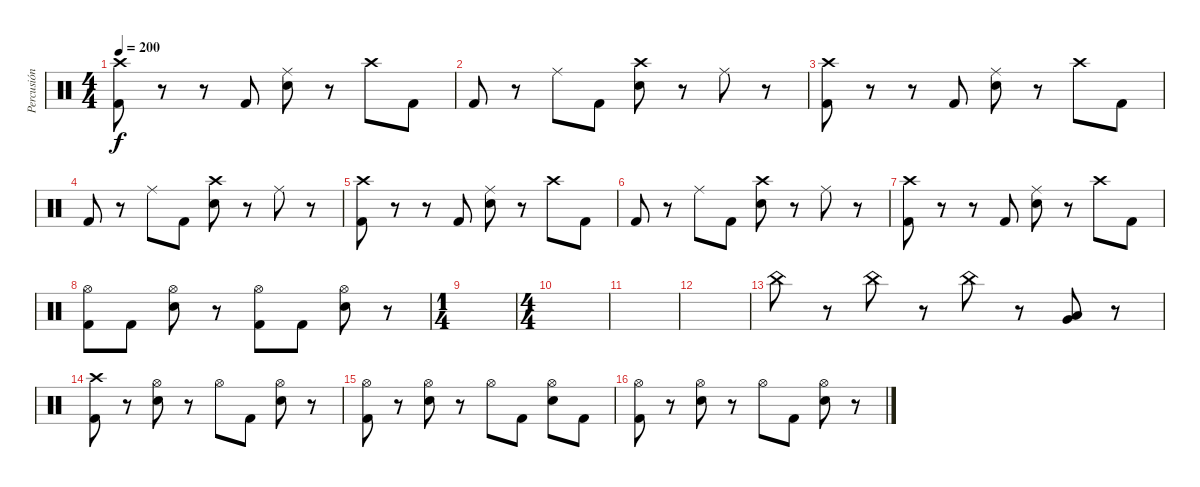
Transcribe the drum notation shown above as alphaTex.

\track ("Percusión" "Percusión") {instrument percussion}
\staff {score}
\articulation defaults
\ts (4 4)
\tempo 200
\clef neutral
\ks c
("Crash high (hit)" "Kick (hit) 2").8{dy f} r.8 r.8 "Kick (hit) 2".8 ("Ride (middle)" "Electric Snare (hit)").8 r.8 "Crash high (hit)".8 "Kick (hit) 2".8 |
"Kick (hit) 2".8 r.8 "Ride (middle)".8 "Kick (hit) 2".8 ("Crash high (hit)" "Electric Snare (hit)").8 r.8 "Ride (middle)".8 r.8 |
("Crash high (hit)" "Kick (hit) 2").8 r.8 r.8 "Kick (hit) 2".8 ("Ride (middle)" "Electric Snare (hit)").8 r.8 "Crash high (hit)".8 "Kick (hit) 2".8 |
"Kick (hit) 2".8 r.8 "Ride (middle)".8 "Kick (hit) 2".8 ("Crash high (hit)" "Electric Snare (hit)").8 r.8 "Ride (middle)".8 r.8 |
("Crash high (hit)" "Kick (hit) 2").8 r.8 r.8 "Kick (hit) 2".8 ("Ride (middle)" "Electric Snare (hit)").8 r.8 "Crash high (hit)".8 "Kick (hit) 2".8 |
"Kick (hit) 2".8 r.8 "Ride (middle)".8 "Kick (hit) 2".8 ("Crash high (hit)" "Electric Snare (hit)").8 r.8 "Ride (middle)".8 r.8 |
("Crash high (hit)" "Kick (hit) 2").8 r.8 r.8 "Kick (hit) 2".8 ("Ride (middle)" "Electric Snare (hit)").8 r.8 "Crash high (hit)".8 "Kick (hit) 2".8 |
("Hi-Hat (open)" "Kick (hit) 2").8 "Kick (hit) 2".8 ("Hi-Hat (open)" "Electric Snare (hit)").8 r.8 ("Hi-Hat (open)" "Kick (hit) 2").8 "Kick (hit) 2".8 ("Hi-Hat (open)" "Electric Snare (hit)").8 r.8 |
\ts (1 4)
|
\ts (4 4)
|
|
|
"China (hit)".8 r.8 "China (hit)".8 r.8 "China (hit)".8 r.8 ("Low Tom (hit)" "Very Low Tom (hit)").8 r.8 |
("Crash high (hit)" "Kick (hit) 2").8 r.8 ("Hi-Hat (open)" "Electric Snare (hit)").8 r.8 "Hi-Hat (open)".8 "Kick (hit) 2".8 ("Hi-Hat (open)" "Electric Snare (hit)").8 r.8 |
("Hi-Hat (open)" "Kick (hit) 2").8 r.8 ("Hi-Hat (open)" "Electric Snare (hit)").8 r.8 "Hi-Hat (open)".8 "Kick (hit) 2".8 ("Hi-Hat (open)" "Electric Snare (hit)").8 "Kick (hit) 2".8 |
("Hi-Hat (open)" "Kick (hit) 2").8 r.8 ("Hi-Hat (open)" "Electric Snare (hit)").8 r.8 "Hi-Hat (open)".8 "Kick (hit) 2".8 ("Hi-Hat (open)" "Electric Snare (hit)").8 r.8
